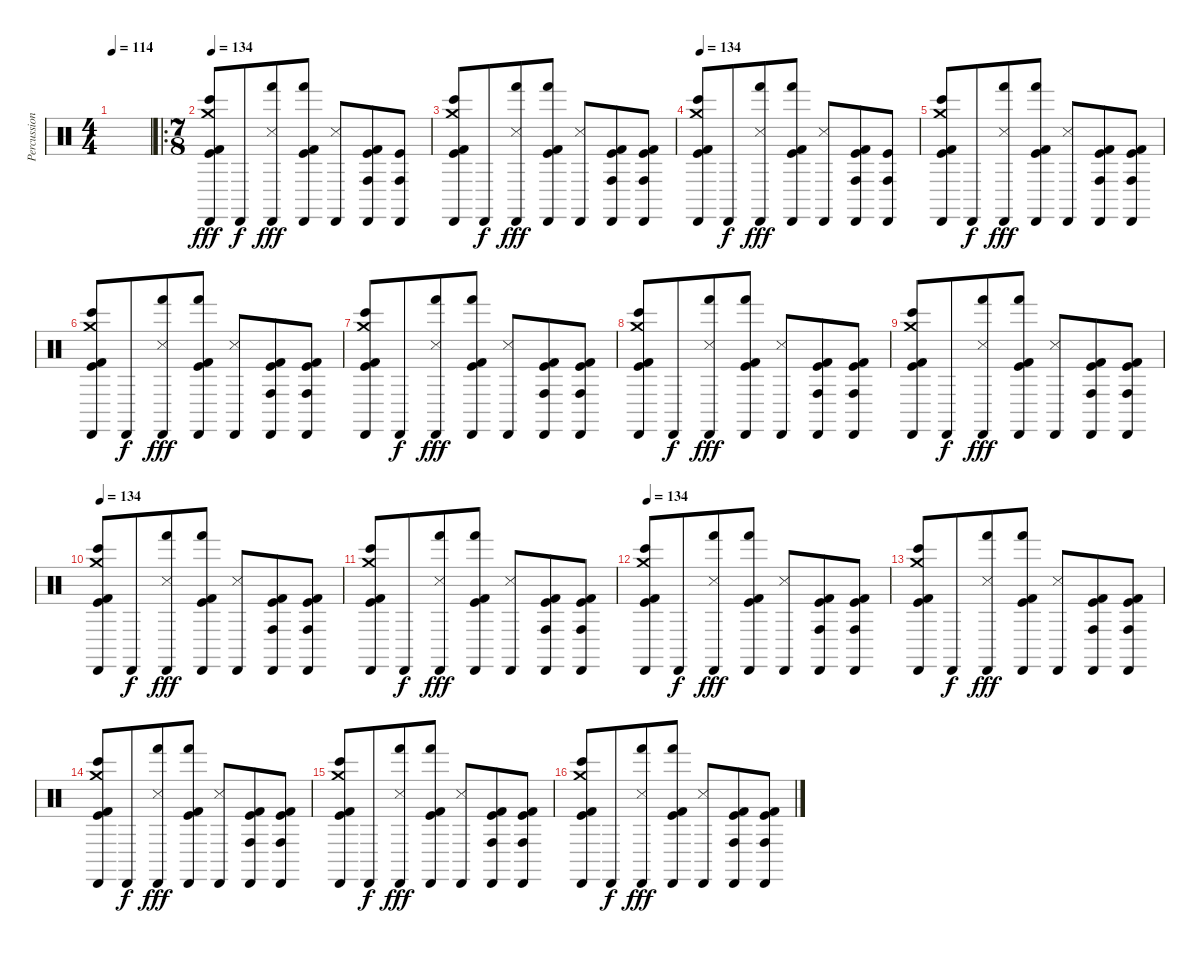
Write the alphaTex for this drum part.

\track ("Percussion" "Percussion") {instrument percussion}
\staff {score}
\articulation defaults
\ts (4 4)
\tempo 114
\clef neutral
\ks c
|
\ro
\ts (7 8)
\tempo 134
("Cabasa (hit)" "Crash medium (hit)" "Bongo High (hit)" "Kick (hit)" "Kick (hit) 2").8{dy fff} "Cabasa (hit)".8{dy f} ("Cabasa (hit)" "Hand (hit)" "Snare (side stick) 3").8{dy fff} ("Cabasa (hit)" "Hand (hit)" "Kick (hit)" "Kick (hit) 2").8 ("Cabasa (hit)" "Snare (side stick) 3").8 ("Cabasa (hit)" "Conga high (hit)" "Kick (hit)" "Kick (hit) 2").8 ("Cabasa (hit)" "Conga high (hit)" "Kick (hit)").8 |
("Cabasa (hit)" "Crash medium (hit)" "Bongo High (hit)" "Kick (hit)" "Kick (hit) 2").8 "Cabasa (hit)".8{dy f} ("Cabasa (hit)" "Hand (hit)" "Snare (side stick) 3").8{dy fff} ("Cabasa (hit)" "Hand (hit)" "Kick (hit)" "Kick (hit) 2").8 ("Cabasa (hit)" "Snare (side stick) 3").8 ("Cabasa (hit)" "Conga high (hit)" "Kick (hit)" "Kick (hit) 2").8 ("Cabasa (hit)" "Conga high (hit)" "Kick (hit)" "Kick (hit) 2").8 |
\tempo 134
("Cabasa (hit)" "Crash medium (hit)" "Bongo High (hit)" "Kick (hit)" "Kick (hit) 2").8 "Cabasa (hit)".8{dy f} ("Cabasa (hit)" "Hand (hit)" "Snare (side stick) 3").8{dy fff} ("Cabasa (hit)" "Hand (hit)" "Kick (hit)" "Kick (hit) 2").8 ("Cabasa (hit)" "Snare (side stick) 3").8 ("Cabasa (hit)" "Conga high (hit)" "Kick (hit)" "Kick (hit) 2").8 ("Cabasa (hit)" "Conga high (hit)" "Kick (hit)").8 |
("Cabasa (hit)" "Crash medium (hit)" "Bongo High (hit)" "Kick (hit)" "Kick (hit) 2").8 "Cabasa (hit)".8{dy f} ("Cabasa (hit)" "Hand (hit)" "Snare (side stick) 3").8{dy fff} ("Cabasa (hit)" "Hand (hit)" "Kick (hit)" "Kick (hit) 2").8 ("Cabasa (hit)" "Snare (side stick) 3").8 ("Cabasa (hit)" "Conga high (hit)" "Kick (hit)" "Kick (hit) 2").8 ("Cabasa (hit)" "Conga high (hit)" "Kick (hit)" "Kick (hit) 2").8 |
("Cabasa (hit)" "Crash medium (hit)" "Bongo High (hit)" "Kick (hit)" "Kick (hit) 2").8 "Cabasa (hit)".8{dy f} ("Cabasa (hit)" "Hand (hit)" "Snare (side stick) 3").8{dy fff} ("Cabasa (hit)" "Hand (hit)" "Kick (hit)" "Kick (hit) 2").8 ("Cabasa (hit)" "Snare (side stick) 3").8 ("Cabasa (hit)" "Conga high (hit)" "Kick (hit)" "Kick (hit) 2").8 ("Cabasa (hit)" "Conga high (hit)" "Kick (hit)" "Kick (hit) 2").8 |
("Cabasa (hit)" "Crash medium (hit)" "Bongo High (hit)" "Kick (hit)" "Kick (hit) 2").8 "Cabasa (hit)".8{dy f} ("Cabasa (hit)" "Hand (hit)" "Snare (side stick) 3").8{dy fff} ("Cabasa (hit)" "Hand (hit)" "Kick (hit)" "Kick (hit) 2").8 ("Cabasa (hit)" "Snare (side stick) 3").8 ("Cabasa (hit)" "Conga high (hit)" "Kick (hit)" "Kick (hit) 2").8 ("Cabasa (hit)" "Conga high (hit)" "Kick (hit)" "Kick (hit) 2").8 |
("Cabasa (hit)" "Crash medium (hit)" "Bongo High (hit)" "Kick (hit)" "Kick (hit) 2").8 "Cabasa (hit)".8{dy f} ("Cabasa (hit)" "Hand (hit)" "Snare (side stick) 3").8{dy fff} ("Cabasa (hit)" "Hand (hit)" "Kick (hit)" "Kick (hit) 2").8 ("Cabasa (hit)" "Snare (side stick) 3").8 ("Cabasa (hit)" "Conga high (hit)" "Kick (hit)" "Kick (hit) 2").8 ("Cabasa (hit)" "Conga high (hit)" "Kick (hit)" "Kick (hit) 2").8 |
("Cabasa (hit)" "Crash medium (hit)" "Bongo High (hit)" "Kick (hit)" "Kick (hit) 2").8 "Cabasa (hit)".8{dy f} ("Cabasa (hit)" "Hand (hit)" "Snare (side stick) 3").8{dy fff} ("Cabasa (hit)" "Hand (hit)" "Kick (hit)" "Kick (hit) 2").8 ("Cabasa (hit)" "Snare (side stick) 3").8 ("Cabasa (hit)" "Conga high (hit)" "Kick (hit)" "Kick (hit) 2").8 ("Cabasa (hit)" "Conga high (hit)" "Kick (hit)" "Kick (hit) 2").8 |
\tempo 134
("Cabasa (hit)" "Crash medium (hit)" "Bongo High (hit)" "Kick (hit)" "Kick (hit) 2").8 "Cabasa (hit)".8{dy f} ("Cabasa (hit)" "Hand (hit)" "Snare (side stick) 3").8{dy fff} ("Cabasa (hit)" "Hand (hit)" "Kick (hit)" "Kick (hit) 2").8 ("Cabasa (hit)" "Snare (side stick) 3").8 ("Cabasa (hit)" "Conga high (hit)" "Kick (hit)" "Kick (hit) 2").8 ("Cabasa (hit)" "Conga high (hit)" "Kick (hit)" "Kick (hit) 2").8 |
("Cabasa (hit)" "Crash medium (hit)" "Bongo High (hit)" "Kick (hit)" "Kick (hit) 2").8 "Cabasa (hit)".8{dy f} ("Cabasa (hit)" "Hand (hit)" "Snare (side stick) 3").8{dy fff} ("Cabasa (hit)" "Hand (hit)" "Kick (hit)" "Kick (hit) 2").8 ("Cabasa (hit)" "Snare (side stick) 3").8 ("Cabasa (hit)" "Conga high (hit)" "Kick (hit)" "Kick (hit) 2").8 ("Cabasa (hit)" "Conga high (hit)" "Kick (hit)" "Kick (hit) 2").8 |
\tempo 134
("Cabasa (hit)" "Crash medium (hit)" "Bongo High (hit)" "Kick (hit)" "Kick (hit) 2").8 "Cabasa (hit)".8{dy f} ("Cabasa (hit)" "Hand (hit)" "Snare (side stick) 3").8{dy fff} ("Cabasa (hit)" "Hand (hit)" "Kick (hit)" "Kick (hit) 2").8 ("Cabasa (hit)" "Snare (side stick) 3").8 ("Cabasa (hit)" "Conga high (hit)" "Kick (hit)" "Kick (hit) 2").8 ("Cabasa (hit)" "Conga high (hit)" "Kick (hit)" "Kick (hit) 2").8 |
("Cabasa (hit)" "Crash medium (hit)" "Bongo High (hit)" "Kick (hit)" "Kick (hit) 2").8 "Cabasa (hit)".8{dy f} ("Cabasa (hit)" "Hand (hit)" "Snare (side stick) 3").8{dy fff} ("Cabasa (hit)" "Hand (hit)" "Kick (hit)" "Kick (hit) 2").8 ("Cabasa (hit)" "Snare (side stick) 3").8 ("Cabasa (hit)" "Conga high (hit)" "Kick (hit)" "Kick (hit) 2").8 ("Cabasa (hit)" "Conga high (hit)" "Kick (hit)" "Kick (hit) 2").8 |
("Cabasa (hit)" "Crash medium (hit)" "Bongo High (hit)" "Kick (hit)" "Kick (hit) 2").8 "Cabasa (hit)".8{dy f} ("Cabasa (hit)" "Hand (hit)" "Snare (side stick) 3").8{dy fff} ("Cabasa (hit)" "Hand (hit)" "Kick (hit)" "Kick (hit) 2").8 ("Cabasa (hit)" "Snare (side stick) 3").8 ("Cabasa (hit)" "Conga high (hit)" "Kick (hit)" "Kick (hit) 2").8 ("Cabasa (hit)" "Conga high (hit)" "Kick (hit)" "Kick (hit) 2").8 |
("Cabasa (hit)" "Crash medium (hit)" "Bongo High (hit)" "Kick (hit)" "Kick (hit) 2").8 "Cabasa (hit)".8{dy f} ("Cabasa (hit)" "Hand (hit)" "Snare (side stick) 3").8{dy fff} ("Cabasa (hit)" "Hand (hit)" "Kick (hit)" "Kick (hit) 2").8 ("Cabasa (hit)" "Snare (side stick) 3").8 ("Cabasa (hit)" "Conga high (hit)" "Kick (hit)" "Kick (hit) 2").8 ("Cabasa (hit)" "Conga high (hit)" "Kick (hit)" "Kick (hit) 2").8 |
("Cabasa (hit)" "Crash medium (hit)" "Bongo High (hit)" "Kick (hit)" "Kick (hit) 2").8 "Cabasa (hit)".8{dy f} ("Cabasa (hit)" "Hand (hit)" "Snare (side stick) 3").8{dy fff} ("Cabasa (hit)" "Hand (hit)" "Kick (hit)" "Kick (hit) 2").8 ("Cabasa (hit)" "Snare (side stick) 3").8 ("Cabasa (hit)" "Conga high (hit)" "Kick (hit)" "Kick (hit) 2").8 ("Cabasa (hit)" "Conga high (hit)" "Kick (hit)" "Kick (hit) 2").8
